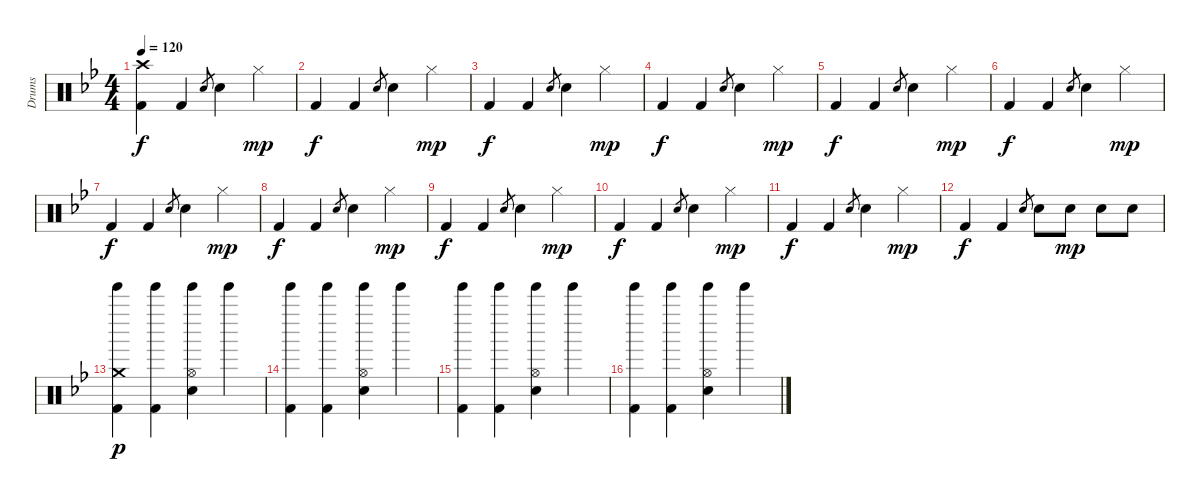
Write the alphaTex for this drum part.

\track ("Drums" "Drums") {instrument percussion}
\staff {score}
\articulation defaults
\ts (4 4)
\tempo 120
\clef neutral
\ks bb
("Crash high (hit)" "Kick (hit) 2").4{dy f} "Kick (hit) 2".4 "Snare (hit) 2".8{gr} "Snare (hit) 2".4 "Hi-Hat (closed)".4{dy mp} |
"Kick (hit) 2".4{dy f} "Kick (hit) 2".4 "Snare (hit) 2".8{gr} "Snare (hit) 2".4 "Hi-Hat (closed)".4{dy mp} |
"Kick (hit) 2".4{dy f} "Kick (hit) 2".4 "Snare (hit) 2".8{gr} "Snare (hit) 2".4 "Hi-Hat (closed)".4{dy mp} |
"Kick (hit) 2".4{dy f} "Kick (hit) 2".4 "Snare (hit) 2".8{gr} "Snare (hit) 2".4 "Hi-Hat (closed)".4{dy mp} |
"Kick (hit) 2".4{dy f} "Kick (hit) 2".4 "Snare (hit) 2".8{gr} "Snare (hit) 2".4 "Hi-Hat (closed)".4{dy mp} |
"Kick (hit) 2".4{dy f} "Kick (hit) 2".4 "Snare (hit) 2".8{gr} "Snare (hit) 2".4 "Hi-Hat (closed)".4{dy mp} |
"Kick (hit) 2".4{dy f} "Kick (hit) 2".4 "Snare (hit) 2".8{gr} "Snare (hit) 2".4 "Hi-Hat (closed)".4{dy mp} |
"Kick (hit) 2".4{dy f} "Kick (hit) 2".4 "Snare (hit) 2".8{gr} "Snare (hit) 2".4 "Hi-Hat (closed)".4{dy mp} |
"Kick (hit) 2".4{dy f} "Kick (hit) 2".4 "Snare (hit) 2".8{gr} "Snare (hit) 2".4 "Hi-Hat (closed)".4{dy mp} |
"Kick (hit) 2".4{dy f} "Kick (hit) 2".4 "Snare (hit) 2".8{gr} "Snare (hit) 2".4 "Hi-Hat (closed)".4{dy mp} |
"Kick (hit) 2".4{dy f} "Kick (hit) 2".4 "Snare (hit) 2".8{gr} "Snare (hit) 2".4 "Hi-Hat (closed)".4{dy mp} |
"Kick (hit) 2".4{dy f} "Kick (hit) 2".4 "Snare (hit) 2".8{gr} "Snare (hit) 2".8 "Snare (hit) 2".8{dy mp} "Snare (hit) 2".8 "Snare (hit) 2".8 |
("Tinkle Bell (hit)" "Crash medium (hit)" "Kick (hit) 2").4{dy p} ("Tinkle Bell (hit)" "Kick (hit) 2").4 ("Tinkle Bell (hit)" "Snare (hit) 2" "Hi-Hat (open)").4 "Tinkle Bell (hit)".4 |
("Tinkle Bell (hit)" "Kick (hit) 2").4 ("Tinkle Bell (hit)" "Kick (hit) 2").4 ("Tinkle Bell (hit)" "Snare (hit) 2" "Hi-Hat (open)").4 "Tinkle Bell (hit)".4 |
("Tinkle Bell (hit)" "Kick (hit) 2").4 ("Tinkle Bell (hit)" "Kick (hit) 2").4 ("Tinkle Bell (hit)" "Snare (hit) 2" "Hi-Hat (open)").4 "Tinkle Bell (hit)".4 |
("Tinkle Bell (hit)" "Kick (hit) 2").4 ("Tinkle Bell (hit)" "Kick (hit) 2").4 ("Tinkle Bell (hit)" "Snare (hit) 2" "Hi-Hat (open)").4 "Tinkle Bell (hit)".4
